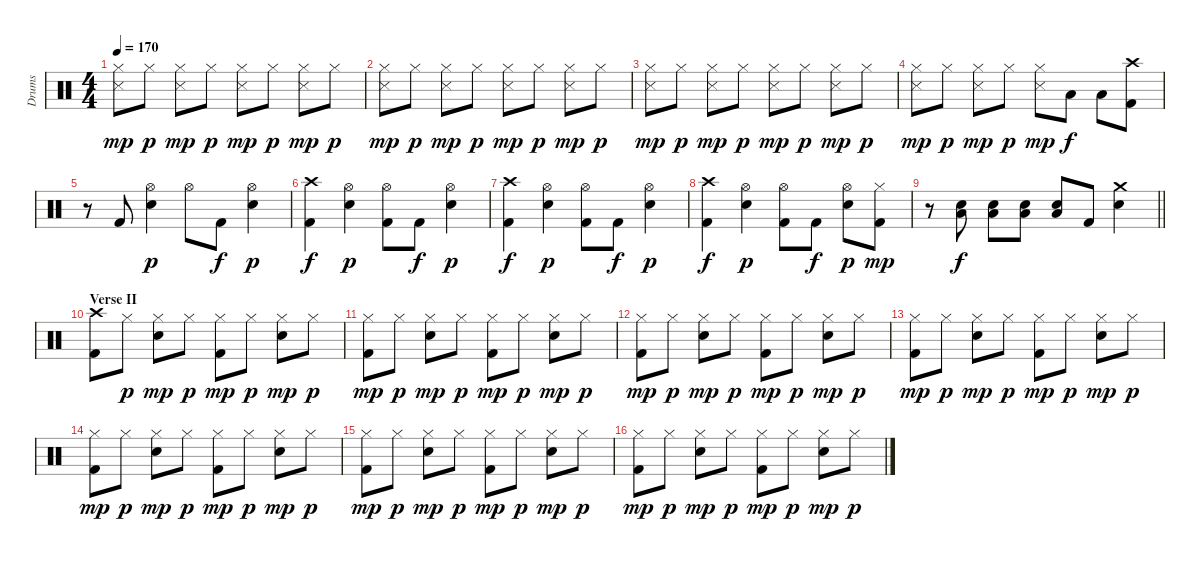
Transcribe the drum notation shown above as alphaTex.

\track ("Drums" "Drums") {instrument percussion}
\staff {score}
\articulation defaults
\ts (4 4)
\tempo 170
\clef neutral
\ks c
("Hi-Hat (closed)" "Snare (side stick) 3").8{dy mp} "Hi-Hat (closed)".8{dy p} ("Hi-Hat (closed)" "Snare (side stick) 3").8{dy mp} "Hi-Hat (closed)".8{dy p} ("Hi-Hat (closed)" "Snare (side stick) 3").8{dy mp} "Hi-Hat (closed)".8{dy p} ("Hi-Hat (closed)" "Snare (side stick) 3").8{dy mp} "Hi-Hat (closed)".8{dy p} |
("Hi-Hat (closed)" "Snare (side stick) 3").8{dy mp} "Hi-Hat (closed)".8{dy p} ("Hi-Hat (closed)" "Snare (side stick) 3").8{dy mp} "Hi-Hat (closed)".8{dy p} ("Hi-Hat (closed)" "Snare (side stick) 3").8{dy mp} "Hi-Hat (closed)".8{dy p} ("Hi-Hat (closed)" "Snare (side stick) 3").8{dy mp} "Hi-Hat (closed)".8{dy p} |
("Hi-Hat (closed)" "Snare (side stick) 3").8{dy mp} "Hi-Hat (closed)".8{dy p} ("Hi-Hat (closed)" "Snare (side stick) 3").8{dy mp} "Hi-Hat (closed)".8{dy p} ("Hi-Hat (closed)" "Snare (side stick) 3").8{dy mp} "Hi-Hat (closed)".8{dy p} ("Hi-Hat (closed)" "Snare (side stick) 3").8{dy mp} "Hi-Hat (closed)".8{dy p} |
("Hi-Hat (closed)" "Snare (side stick) 3").8{dy mp} "Hi-Hat (closed)".8{dy p} ("Hi-Hat (closed)" "Snare (side stick) 3").8{dy mp} "Hi-Hat (closed)".8{dy p} ("Hi-Hat (closed)" "Snare (side stick) 3").8{dy mp} "Low Tom (hit)".8{dy f} "Low Tom (hit)".8 ("Crash high (hit)" "Kick (hit) 2").8 |
r.8 "Kick (hit) 2".8 ("Hi-Hat (open)" "Electric Snare (hit)").4{dy p} "Hi-Hat (open)".8 "Kick (hit) 2".8{dy f} ("Hi-Hat (open)" "Electric Snare (hit)").4{dy p} |
("Crash high (hit)" "Kick (hit) 2").4{dy f} ("Hi-Hat (open)" "Electric Snare (hit)").4{dy p} ("Hi-Hat (open)" "Kick (hit) 2").8 "Kick (hit) 2".8{dy f} ("Hi-Hat (open)" "Electric Snare (hit)").4{dy p} |
("Crash high (hit)" "Kick (hit) 2").4{dy f} ("Hi-Hat (open)" "Electric Snare (hit)").4{dy p} ("Hi-Hat (open)" "Kick (hit) 2").8 "Kick (hit) 2".8{dy f} ("Hi-Hat (open)" "Electric Snare (hit)").4{dy p} |
("Crash high (hit)" "Kick (hit) 2").4{dy f} ("Hi-Hat (open)" "Electric Snare (hit)").4{dy p} ("Hi-Hat (open)" "Kick (hit) 2").8 "Kick (hit) 2".8{dy f} ("Hi-Hat (open)" "Electric Snare (hit)").8{dy p} ("Hi-Hat (closed)" "Kick (hit) 2").8{dy mp} |
\barLineRight lightlight
r.8 ("Electric Snare (hit)" "Low Tom (hit)").8{dy f} ("Electric Snare (hit)" "Low Tom (hit)").8 ("Electric Snare (hit)" "Low Tom (hit)").8 ("Electric Snare (hit)" "Low Tom (hit)").8 "Kick (hit) 2".8 ("Crash medium (hit)" "Electric Snare (hit)").4 |
\section ("" "Verse II")
("Crash high (hit)" "Kick (hit) 2").8 "Hi-Hat (closed)".8{dy p} ("Hi-Hat (closed)" "Electric Snare (hit)").8{dy mp} "Hi-Hat (closed)".8{dy p} ("Hi-Hat (closed)" "Kick (hit) 2").8{dy mp} "Hi-Hat (closed)".8{dy p} ("Hi-Hat (closed)" "Electric Snare (hit)").8{dy mp} "Hi-Hat (closed)".8{dy p} |
("Hi-Hat (closed)" "Kick (hit) 2").8{dy mp} "Hi-Hat (closed)".8{dy p} ("Hi-Hat (closed)" "Electric Snare (hit)").8{dy mp} "Hi-Hat (closed)".8{dy p} ("Hi-Hat (closed)" "Kick (hit) 2").8{dy mp} "Hi-Hat (closed)".8{dy p} ("Hi-Hat (closed)" "Electric Snare (hit)").8{dy mp} "Hi-Hat (closed)".8{dy p} |
("Hi-Hat (closed)" "Kick (hit) 2").8{dy mp} "Hi-Hat (closed)".8{dy p} ("Hi-Hat (closed)" "Electric Snare (hit)").8{dy mp} "Hi-Hat (closed)".8{dy p} ("Hi-Hat (closed)" "Kick (hit) 2").8{dy mp} "Hi-Hat (closed)".8{dy p} ("Hi-Hat (closed)" "Electric Snare (hit)").8{dy mp} "Hi-Hat (closed)".8{dy p} |
("Hi-Hat (closed)" "Kick (hit) 2").8{dy mp} "Hi-Hat (closed)".8{dy p} ("Hi-Hat (closed)" "Electric Snare (hit)").8{dy mp} "Hi-Hat (closed)".8{dy p} ("Hi-Hat (closed)" "Kick (hit) 2").8{dy mp} "Hi-Hat (closed)".8{dy p} ("Hi-Hat (closed)" "Electric Snare (hit)").8{dy mp} "Hi-Hat (closed)".8{dy p} |
("Hi-Hat (closed)" "Kick (hit) 2").8{dy mp} "Hi-Hat (closed)".8{dy p} ("Hi-Hat (closed)" "Electric Snare (hit)").8{dy mp} "Hi-Hat (closed)".8{dy p} ("Hi-Hat (closed)" "Kick (hit) 2").8{dy mp} "Hi-Hat (closed)".8{dy p} ("Hi-Hat (closed)" "Electric Snare (hit)").8{dy mp} "Hi-Hat (closed)".8{dy p} |
("Hi-Hat (closed)" "Kick (hit) 2").8{dy mp} "Hi-Hat (closed)".8{dy p} ("Hi-Hat (closed)" "Electric Snare (hit)").8{dy mp} "Hi-Hat (closed)".8{dy p} ("Hi-Hat (closed)" "Kick (hit) 2").8{dy mp} "Hi-Hat (closed)".8{dy p} ("Hi-Hat (closed)" "Electric Snare (hit)").8{dy mp} "Hi-Hat (closed)".8{dy p} |
("Hi-Hat (closed)" "Kick (hit) 2").8{dy mp} "Hi-Hat (closed)".8{dy p} ("Hi-Hat (closed)" "Electric Snare (hit)").8{dy mp} "Hi-Hat (closed)".8{dy p} ("Hi-Hat (closed)" "Kick (hit) 2").8{dy mp} "Hi-Hat (closed)".8{dy p} ("Hi-Hat (closed)" "Electric Snare (hit)").8{dy mp} "Hi-Hat (closed)".8{dy p}
